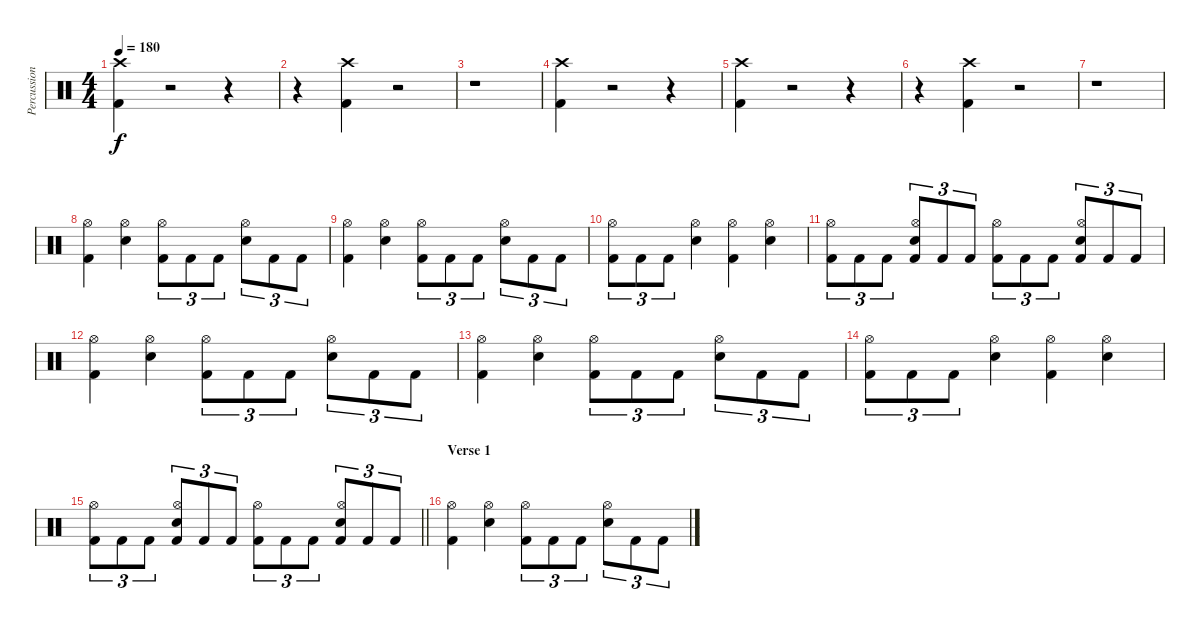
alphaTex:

\track ("Percussion" "Percussion") {instrument percussion}
\staff {score}
\articulation defaults
\ts (4 4)
\tempo 180
\clef neutral
\ks c
("Crash high (hit)" "Kick (hit) 2").4{dy f} r.2 r.4 |
r.4 ("Crash high (hit)" "Kick (hit) 2").4 r.2 |
r.1 |
("Crash high (hit)" "Kick (hit) 2").4 r.2 r.4 |
("Crash high (hit)" "Kick (hit) 2").4 r.2 r.4 |
r.4 ("Crash high (hit)" "Kick (hit) 2").4 r.2 |
r.1 |
("Hi-Hat (open)" "Kick (hit) 2").4 ("Hi-Hat (open)" "Snare (hit) 2").4 ("Hi-Hat (open)" "Kick (hit) 2").8{tu (3 2)} "Kick (hit) 2".8{tu (3 2)} "Kick (hit) 2".8{tu (3 2)} ("Hi-Hat (open)" "Snare (hit) 2").8{tu (3 2)} "Kick (hit) 2".8{tu (3 2)} "Kick (hit) 2".8{tu (3 2)} |
("Hi-Hat (open)" "Kick (hit) 2").4 ("Hi-Hat (open)" "Snare (hit) 2").4 ("Hi-Hat (open)" "Kick (hit) 2").8{tu (3 2)} "Kick (hit) 2".8{tu (3 2)} "Kick (hit) 2".8{tu (3 2)} ("Hi-Hat (open)" "Snare (hit) 2").8{tu (3 2)} "Kick (hit) 2".8{tu (3 2)} "Kick (hit) 2".8{tu (3 2)} |
("Hi-Hat (open)" "Kick (hit) 2").8{tu (3 2)} "Kick (hit) 2".8{tu (3 2)} "Kick (hit) 2".8{tu (3 2)} ("Hi-Hat (open)" "Snare (hit) 2").4 ("Hi-Hat (open)" "Kick (hit) 2").4 ("Hi-Hat (open)" "Snare (hit) 2").4 |
("Hi-Hat (open)" "Kick (hit) 2").8{tu (3 2)} "Kick (hit) 2".8{tu (3 2)} "Kick (hit) 2".8{tu (3 2)} ("Hi-Hat (open)" "Snare (hit) 2" "Kick (hit) 2").8{tu (3 2)} "Kick (hit) 2".8{tu (3 2)} "Kick (hit) 2".8{tu (3 2)} ("Hi-Hat (open)" "Kick (hit) 2").8{tu (3 2)} "Kick (hit) 2".8{tu (3 2)} "Kick (hit) 2".8{tu (3 2)} ("Hi-Hat (open)" "Snare (hit) 2" "Kick (hit) 2").8{tu (3 2)} "Kick (hit) 2".8{tu (3 2)} "Kick (hit) 2".8{tu (3 2)} |
("Hi-Hat (open)" "Kick (hit) 2").4 ("Hi-Hat (open)" "Snare (hit) 2").4 ("Hi-Hat (open)" "Kick (hit) 2").8{tu (3 2)} "Kick (hit) 2".8{tu (3 2)} "Kick (hit) 2".8{tu (3 2)} ("Hi-Hat (open)" "Snare (hit) 2").8{tu (3 2)} "Kick (hit) 2".8{tu (3 2)} "Kick (hit) 2".8{tu (3 2)} |
("Hi-Hat (open)" "Kick (hit) 2").4 ("Hi-Hat (open)" "Snare (hit) 2").4 ("Hi-Hat (open)" "Kick (hit) 2").8{tu (3 2)} "Kick (hit) 2".8{tu (3 2)} "Kick (hit) 2".8{tu (3 2)} ("Hi-Hat (open)" "Snare (hit) 2").8{tu (3 2)} "Kick (hit) 2".8{tu (3 2)} "Kick (hit) 2".8{tu (3 2)} |
("Hi-Hat (open)" "Kick (hit) 2").8{tu (3 2)} "Kick (hit) 2".8{tu (3 2)} "Kick (hit) 2".8{tu (3 2)} ("Hi-Hat (open)" "Snare (hit) 2").4 ("Hi-Hat (open)" "Kick (hit) 2").4 ("Hi-Hat (open)" "Snare (hit) 2").4 |
\barLineRight lightlight
("Hi-Hat (open)" "Kick (hit) 2").8{tu (3 2)} "Kick (hit) 2".8{tu (3 2)} "Kick (hit) 2".8{tu (3 2)} ("Hi-Hat (open)" "Snare (hit) 2" "Kick (hit) 2").8{tu (3 2)} "Kick (hit) 2".8{tu (3 2)} "Kick (hit) 2".8{tu (3 2)} ("Hi-Hat (open)" "Kick (hit) 2").8{tu (3 2)} "Kick (hit) 2".8{tu (3 2)} "Kick (hit) 2".8{tu (3 2)} ("Hi-Hat (open)" "Snare (hit) 2" "Kick (hit) 2").8{tu (3 2)} "Kick (hit) 2".8{tu (3 2)} "Kick (hit) 2".8{tu (3 2)} |
\section ("" "Verse 1")
("Hi-Hat (open)" "Kick (hit) 2").4 ("Hi-Hat (open)" "Snare (hit) 2").4 ("Hi-Hat (open)" "Kick (hit) 2").8{tu (3 2)} "Kick (hit) 2".8{tu (3 2)} "Kick (hit) 2".8{tu (3 2)} ("Hi-Hat (open)" "Snare (hit) 2").8{tu (3 2)} "Kick (hit) 2".8{tu (3 2)} "Kick (hit) 2".8{tu (3 2)}
